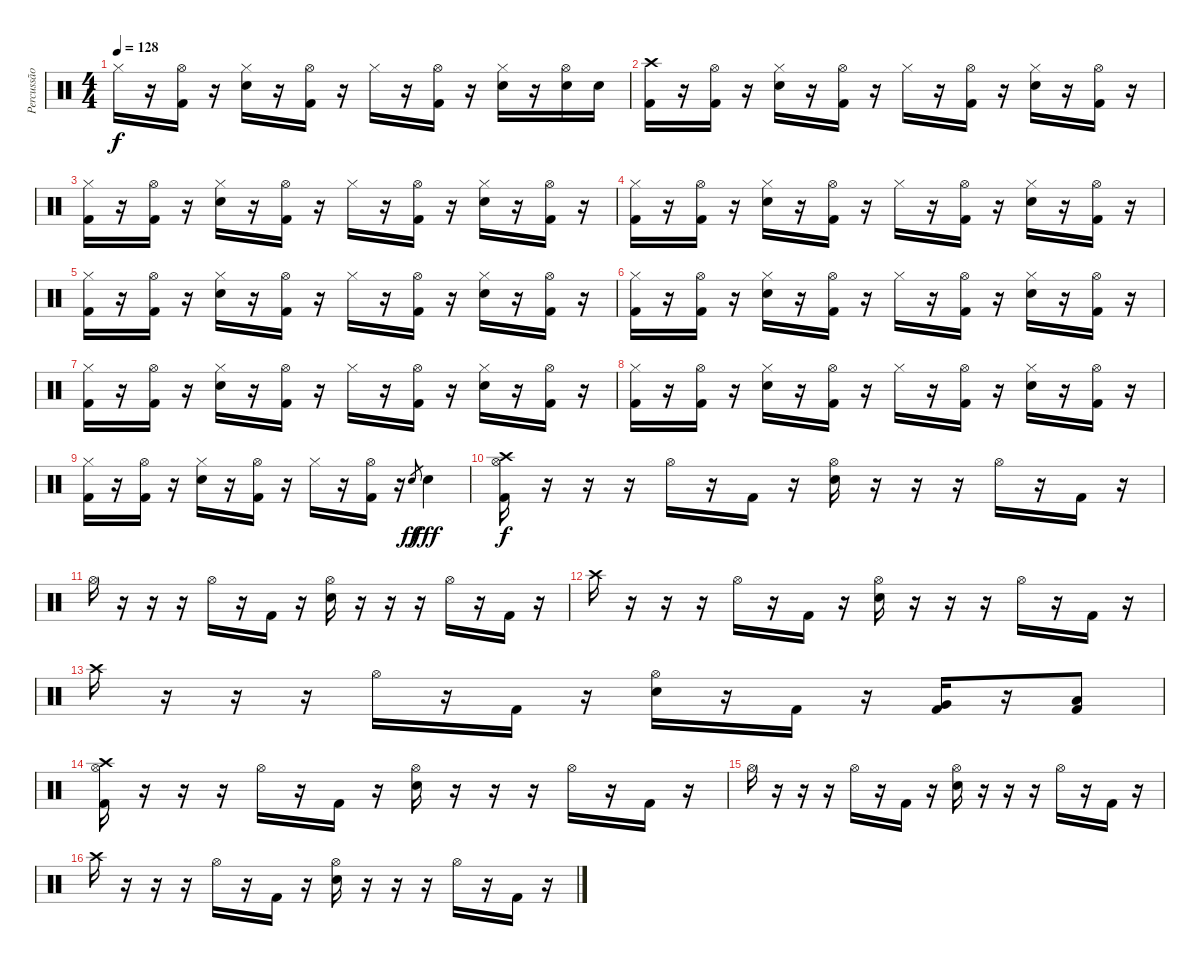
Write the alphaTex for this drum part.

\track ("Percussão" "Percussão") {instrument percussion}
\staff {score}
\articulation defaults
\ts (4 4)
\tempo 128
\clef neutral
\ks c "Hi-Hat (closed)".16{dy f}
r.16 ("Hi-Hat (open)" "Kick (hit) 2").16 r.16 ("Hi-Hat (closed)" "Electric Snare (hit)").16 r.16 ("Hi-Hat (open)" "Kick (hit) 2").16 r.16 "Hi-Hat (closed)".16 r.16 ("Hi-Hat (open)" "Kick (hit) 2").16 r.16 ("Hi-Hat (closed)" "Electric Snare (hit)").16 r.16 ("Hi-Hat (open)" "Electric Snare (hit)").16 "Electric Snare (hit)".16 |
("Crash high (hit)" "Kick (hit) 2").16 r.16 ("Hi-Hat (open)" "Kick (hit) 2").16 r.16 ("Hi-Hat (closed)" "Electric Snare (hit)").16 r.16 ("Hi-Hat (open)" "Kick (hit) 2").16 r.16 "Hi-Hat (closed)".16 r.16 ("Hi-Hat (open)" "Kick (hit) 2").16 r.16 ("Hi-Hat (closed)" "Electric Snare (hit)").16 r.16 ("Hi-Hat (open)" "Kick (hit) 2").16 r.16 |
("Hi-Hat (closed)" "Kick (hit) 2").16 r.16 ("Hi-Hat (open)" "Kick (hit) 2").16 r.16 ("Hi-Hat (closed)" "Electric Snare (hit)").16 r.16 ("Hi-Hat (open)" "Kick (hit) 2").16 r.16 "Hi-Hat (closed)".16 r.16 ("Hi-Hat (open)" "Kick (hit) 2").16 r.16 ("Hi-Hat (closed)" "Electric Snare (hit)").16 r.16 ("Hi-Hat (open)" "Kick (hit) 2").16 r.16 |
("Hi-Hat (closed)" "Kick (hit) 2").16 r.16 ("Hi-Hat (open)" "Kick (hit) 2").16 r.16 ("Hi-Hat (closed)" "Electric Snare (hit)").16 r.16 ("Hi-Hat (open)" "Kick (hit) 2").16 r.16 "Hi-Hat (closed)".16 r.16 ("Hi-Hat (open)" "Kick (hit) 2").16 r.16 ("Hi-Hat (closed)" "Electric Snare (hit)").16 r.16 ("Hi-Hat (open)" "Kick (hit) 2").16 r.16 |
("Hi-Hat (closed)" "Kick (hit) 2").16 r.16 ("Hi-Hat (open)" "Kick (hit) 2").16 r.16 ("Hi-Hat (closed)" "Electric Snare (hit)").16 r.16 ("Hi-Hat (open)" "Kick (hit) 2").16 r.16 "Hi-Hat (closed)".16 r.16 ("Hi-Hat (open)" "Kick (hit) 2").16 r.16 ("Hi-Hat (closed)" "Electric Snare (hit)").16 r.16 ("Hi-Hat (open)" "Kick (hit) 2").16 r.16 |
("Hi-Hat (closed)" "Kick (hit) 2").16 r.16 ("Hi-Hat (open)" "Kick (hit) 2").16 r.16 ("Hi-Hat (closed)" "Electric Snare (hit)").16 r.16 ("Hi-Hat (open)" "Kick (hit) 2").16 r.16 "Hi-Hat (closed)".16 r.16 ("Hi-Hat (open)" "Kick (hit) 2").16 r.16 ("Hi-Hat (closed)" "Electric Snare (hit)").16 r.16 ("Hi-Hat (open)" "Kick (hit) 2").16 r.16 |
("Hi-Hat (closed)" "Kick (hit) 2").16 r.16 ("Hi-Hat (open)" "Kick (hit) 2").16 r.16 ("Hi-Hat (closed)" "Electric Snare (hit)").16 r.16 ("Hi-Hat (open)" "Kick (hit) 2").16 r.16 "Hi-Hat (closed)".16 r.16 ("Hi-Hat (open)" "Kick (hit) 2").16 r.16 ("Hi-Hat (closed)" "Electric Snare (hit)").16 r.16 ("Hi-Hat (open)" "Kick (hit) 2").16 r.16 |
("Hi-Hat (closed)" "Kick (hit) 2").16 r.16 ("Hi-Hat (open)" "Kick (hit) 2").16 r.16 ("Hi-Hat (closed)" "Electric Snare (hit)").16 r.16 ("Hi-Hat (open)" "Kick (hit) 2").16 r.16 "Hi-Hat (closed)".16 r.16 ("Hi-Hat (open)" "Kick (hit) 2").16 r.16 ("Hi-Hat (closed)" "Electric Snare (hit)").16 r.16 ("Hi-Hat (open)" "Kick (hit) 2").16 r.16 |
("Hi-Hat (closed)" "Kick (hit) 2").16 r.16 ("Hi-Hat (open)" "Kick (hit) 2").16 r.16 ("Hi-Hat (closed)" "Electric Snare (hit)").16 r.16 ("Hi-Hat (open)" "Kick (hit) 2").16 r.16 "Hi-Hat (closed)".16 r.16 ("Hi-Hat (open)" "Kick (hit) 2").16 r.16 "Electric Snare (hit)".8{gr dy ff} "Electric Snare (hit)".4{dy fff} |
("Crash high (hit)" "Hi-Hat (open)" "Kick (hit) 2").16{dy f} r.16 r.16 r.16 "Hi-Hat (open)".16 r.16 "Kick (hit) 2".16 r.16 ("Hi-Hat (open)" "Electric Snare (hit)").16 r.16 r.16 r.16 "Hi-Hat (open)".16 r.16 "Kick (hit) 2".16 r.16 |
"Hi-Hat (open)".16 r.16 r.16 r.16 "Hi-Hat (open)".16 r.16 "Kick (hit) 2".16 r.16 ("Hi-Hat (open)" "Electric Snare (hit)").16 r.16 r.16 r.16 "Hi-Hat (open)".16 r.16 "Kick (hit) 2".16 r.16 |
"Crash high (hit)".16 r.16 r.16 r.16 "Hi-Hat (open)".16 r.16 "Kick (hit) 2".16 r.16 ("Hi-Hat (open)" "Electric Snare (hit)").16 r.16 r.16 r.16 "Hi-Hat (open)".16 r.16 "Kick (hit) 2".16 r.16 |
"Crash high (hit)".16 r.16 r.16 r.16 "Hi-Hat (open)".16 r.16 "Kick (hit) 2".16 r.16 ("Hi-Hat (open)" "Electric Snare (hit)").16 r.16 "Kick (hit) 2".16 r.16 ("Very Low Tom (hit)" "Kick (hit) 2").16 r.16 ("Low Floor Tom (hit)" "Kick (hit) 2").8 |
("Crash high (hit)" "Hi-Hat (open)" "Kick (hit) 2").16 r.16 r.16 r.16 "Hi-Hat (open)".16 r.16 "Kick (hit) 2".16 r.16 ("Hi-Hat (open)" "Electric Snare (hit)").16 r.16 r.16 r.16 "Hi-Hat (open)".16 r.16 "Kick (hit) 2".16 r.16 |
"Hi-Hat (open)".16 r.16 r.16 r.16 "Hi-Hat (open)".16 r.16 "Kick (hit) 2".16 r.16 ("Hi-Hat (open)" "Electric Snare (hit)").16 r.16 r.16 r.16 "Hi-Hat (open)".16 r.16 "Kick (hit) 2".16 r.16 |
"Crash high (hit)".16 r.16 r.16 r.16 "Hi-Hat (open)".16 r.16 "Kick (hit) 2".16 r.16 ("Hi-Hat (open)" "Electric Snare (hit)").16 r.16 r.16 r.16 "Hi-Hat (open)".16 r.16 "Kick (hit) 2".16 r.16
